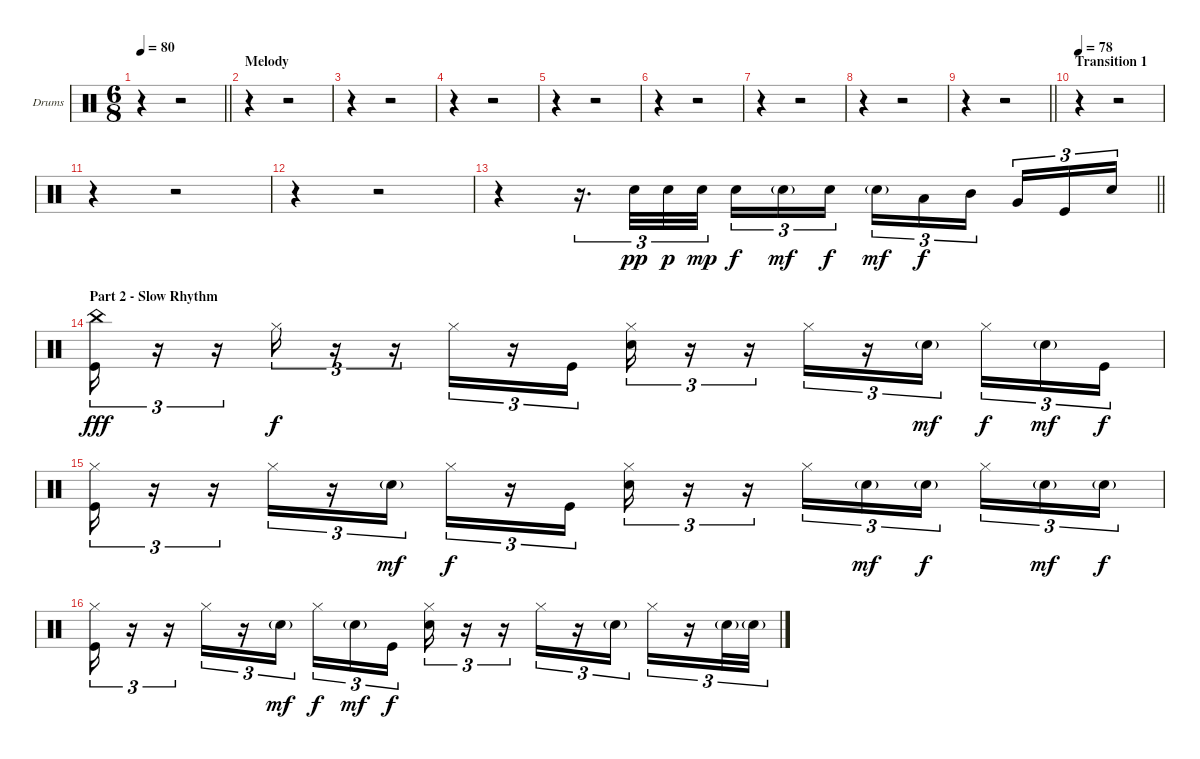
\bracketExtendMode nobrackets
\firstSystemTrackNameOrientation horizontal
\otherSystemsTrackNameOrientation horizontal
\track ("Drumkit" "Drums") {instrument percussion}
\staff {score}
\articulation defaults
\ts (6 8)
\tempo 80
\clef neutral
\barLineRight lightlight
\ks c
r.4{dy pp} r.2 |
\section ("" "Melody")
r.4 r.2 |
r.4 r.2 |
r.4 r.2 |
r.4 r.2 |
r.4 r.2 |
r.4 r.2 |
r.4 r.2 |
\barLineRight lightlight
r.4 r.2 |
\section ("" "Transition 1")
\tempo 78
r.4 r.2 |
r.4 r.2 |
r.4 r.2 |
\barLineRight lightlight
r.4 r.16{d tu (3 2)} "Snare (hit) 2".32{tu (3 2)} "Snare (hit) 2".32{tu (3 2) dy p} "Snare (hit) 2".32{tu (3 2) dy mp} "Snare (hit) 2".16{tu (3 2) dy f} "Snare (hit) 2"{g}.16{tu (3 2) dy mf} "Snare (hit) 2".16{tu (3 2) dy f} "Snare (hit) 2"{g}.16{tu (3 2) dy mf} "Low Tom (hit)".16{tu (3 2) dy f} "Mid Tom (hit)".16{tu (3 2)} "Very Low Tom (hit)".16{tu (3 2)} "Kick (hit)".16{tu (3 2)} "Snare (hit) 2".16{tu (3 2)} |
\section ("" "Part 2 - Slow Rhythm")
("China (hit)" "Kick (hit)").16{tu (3 2) dy fff} r.16{tu (3 2)} r.16{tu (3 2)} "Hi-Hat (closed)".16{tu (3 2) dy f} r.16{tu (3 2)} r.16{tu (3 2)} "Hi-Hat (closed)".16{tu (3 2)} r.16{tu (3 2)} "Kick (hit)".16{tu (3 2)} ("Hi-Hat (closed)" "Snare (hit) 2").16{tu (3 2)} r.16{tu (3 2)} r.16{tu (3 2)} "Hi-Hat (closed)".16{tu (3 2)} r.16{tu (3 2)} "Snare (hit) 2"{g}.16{tu (3 2) dy mf} "Hi-Hat (closed)".16{tu (3 2) dy f} "Snare (hit) 2"{g}.16{tu (3 2) dy mf} "Kick (hit)".16{tu (3 2) dy f} |
("Hi-Hat (closed)" "Kick (hit)").16{tu (3 2)} r.16{tu (3 2)} r.16{tu (3 2)} "Hi-Hat (closed)".16{tu (3 2)} r.16{tu (3 2)} "Snare (hit) 2"{g}.16{tu (3 2) dy mf} "Hi-Hat (closed)".16{tu (3 2) dy f} r.16{tu (3 2)} "Kick (hit)".16{tu (3 2)} ("Hi-Hat (closed)" "Snare (hit) 2").16{tu (3 2)} r.16{tu (3 2)} r.16{tu (3 2)} "Hi-Hat (closed)".16{tu (3 2)} "Snare (hit) 2"{g}.16{tu (3 2) dy mf} "Snare (hit) 2"{g}.16{tu (3 2) dy f} "Hi-Hat (closed)".16{tu (3 2)} "Snare (hit) 2"{g}.16{tu (3 2) dy mf} "Snare (hit) 2"{g}.16{tu (3 2) dy f} |
("Hi-Hat (closed)" "Kick (hit)").16{tu (3 2)} r.16{tu (3 2)} r.16{tu (3 2)} "Hi-Hat (closed)".16{tu (3 2)} r.16{tu (3 2)} "Snare (hit) 2"{g}.16{tu (3 2) dy mf} "Hi-Hat (closed)".16{tu (3 2) dy f} "Snare (hit) 2"{g}.16{tu (3 2) dy mf} "Kick (hit)".16{tu (3 2) dy f} ("Hi-Hat (closed)" "Snare (hit) 2").16{tu (3 2)} r.16{tu (3 2)} r.16{tu (3 2)} "Hi-Hat (closed)".16{tu (3 2)} r.16{tu (3 2)} "Snare (hit) 2"{g}.16{tu (3 2)} "Hi-Hat (closed)".16{tu (3 2)} r.16{tu (3 2)} "Snare (hit) 2"{g}.32{tu (3 2)} "Snare (hit) 2"{g}.32{tu (3 2)}
